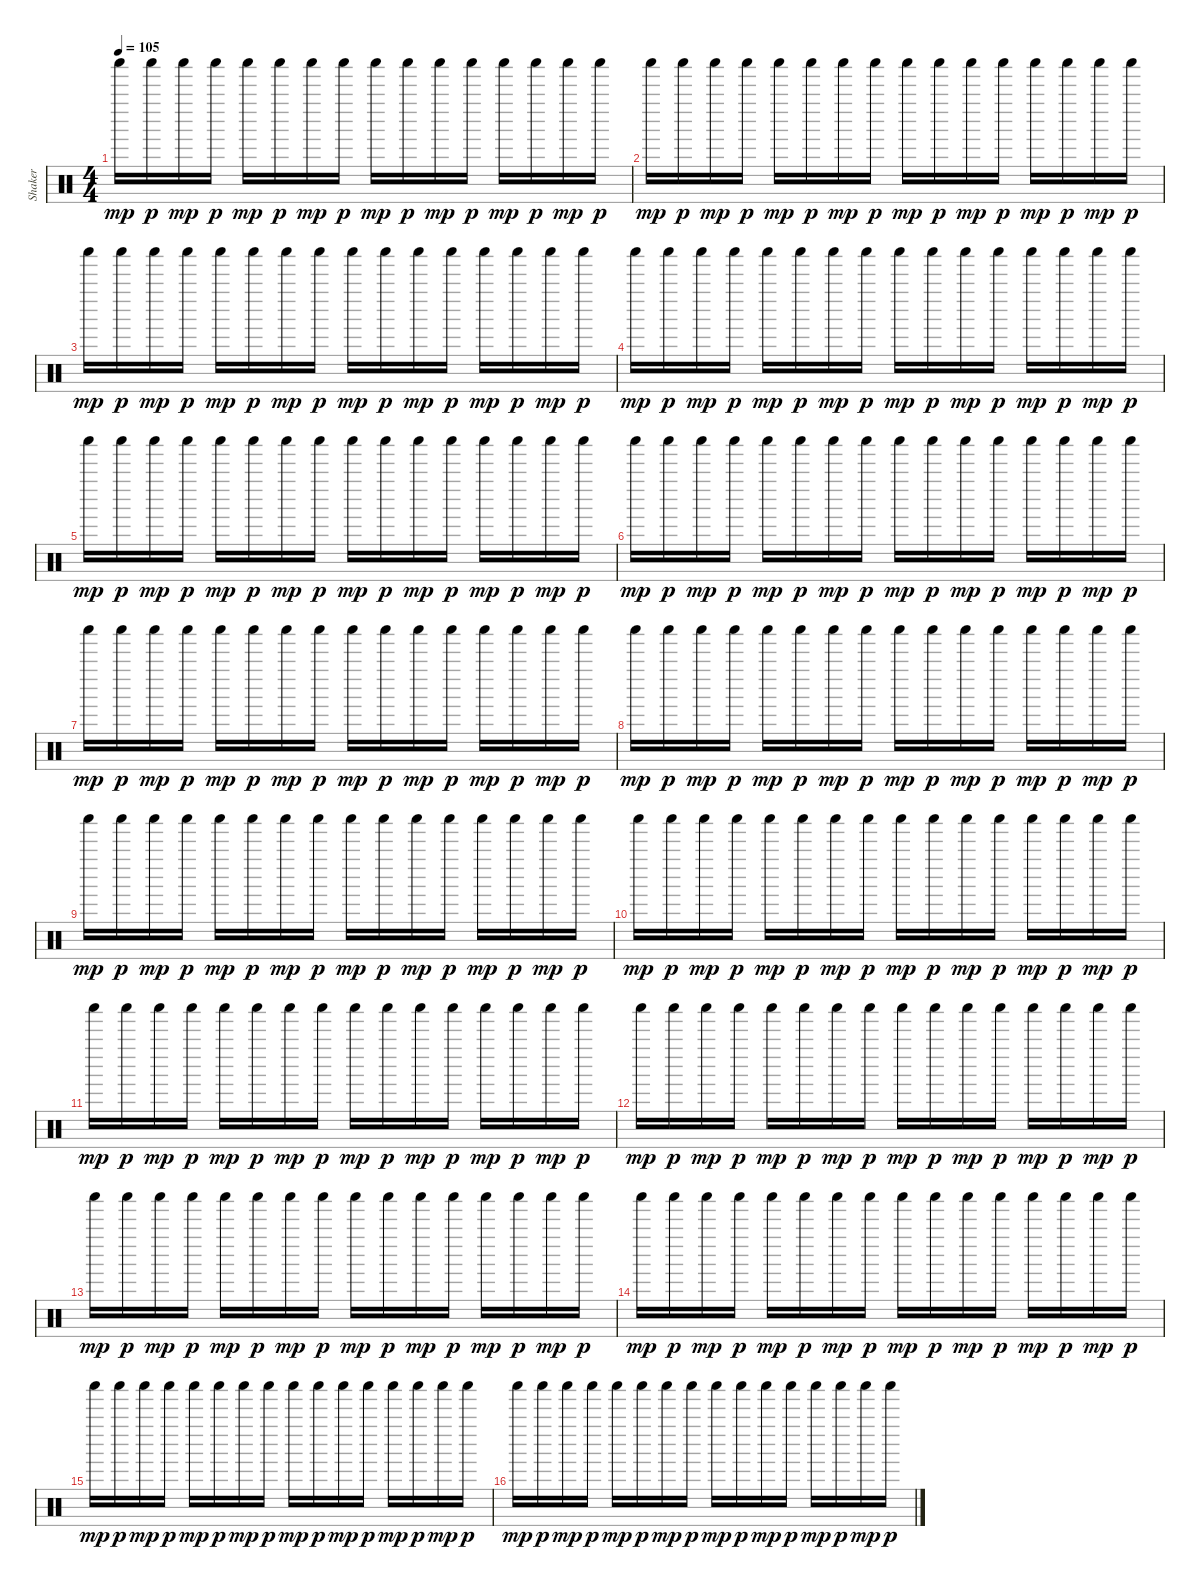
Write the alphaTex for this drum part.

\track ("Shaker" "Shaker") {instrument percussion}
\staff {score}
\articulation defaults
\ts (4 4)
\tempo 105
\clef neutral
\ks c "Shaker (hit)".16{dy mp} "Shaker (hit)".16{dy p} "Shaker (hit)".16{dy mp} "Shaker (hit)".16{dy p} "Shaker (hit)".16{dy mp} "Shaker (hit)".16{dy p} "Shaker (hit)".16{dy mp} "Shaker (hit)".16{dy p} "Shaker (hit)".16{dy mp} "Shaker (hit)".16{dy p} "Shaker (hit)".16{dy mp} "Shaker (hit)".16{dy p} "Shaker (hit)".16{dy mp} "Shaker (hit)".16{dy p} "Shaker (hit)".16{dy mp} "Shaker (hit)".16{dy p}
|
"Shaker (hit)".16{dy mp} "Shaker (hit)".16{dy p} "Shaker (hit)".16{dy mp} "Shaker (hit)".16{dy p} "Shaker (hit)".16{dy mp} "Shaker (hit)".16{dy p} "Shaker (hit)".16{dy mp} "Shaker (hit)".16{dy p} "Shaker (hit)".16{dy mp} "Shaker (hit)".16{dy p} "Shaker (hit)".16{dy mp} "Shaker (hit)".16{dy p} "Shaker (hit)".16{dy mp} "Shaker (hit)".16{dy p} "Shaker (hit)".16{dy mp} "Shaker (hit)".16{dy p} |
"Shaker (hit)".16{dy mp} "Shaker (hit)".16{dy p} "Shaker (hit)".16{dy mp} "Shaker (hit)".16{dy p} "Shaker (hit)".16{dy mp} "Shaker (hit)".16{dy p} "Shaker (hit)".16{dy mp} "Shaker (hit)".16{dy p} "Shaker (hit)".16{dy mp} "Shaker (hit)".16{dy p} "Shaker (hit)".16{dy mp} "Shaker (hit)".16{dy p} "Shaker (hit)".16{dy mp} "Shaker (hit)".16{dy p} "Shaker (hit)".16{dy mp} "Shaker (hit)".16{dy p} |
"Shaker (hit)".16{dy mp} "Shaker (hit)".16{dy p} "Shaker (hit)".16{dy mp} "Shaker (hit)".16{dy p} "Shaker (hit)".16{dy mp} "Shaker (hit)".16{dy p} "Shaker (hit)".16{dy mp} "Shaker (hit)".16{dy p} "Shaker (hit)".16{dy mp} "Shaker (hit)".16{dy p} "Shaker (hit)".16{dy mp} "Shaker (hit)".16{dy p} "Shaker (hit)".16{dy mp} "Shaker (hit)".16{dy p} "Shaker (hit)".16{dy mp} "Shaker (hit)".16{dy p} |
"Shaker (hit)".16{dy mp} "Shaker (hit)".16{dy p} "Shaker (hit)".16{dy mp} "Shaker (hit)".16{dy p} "Shaker (hit)".16{dy mp} "Shaker (hit)".16{dy p} "Shaker (hit)".16{dy mp} "Shaker (hit)".16{dy p} "Shaker (hit)".16{dy mp} "Shaker (hit)".16{dy p} "Shaker (hit)".16{dy mp} "Shaker (hit)".16{dy p} "Shaker (hit)".16{dy mp} "Shaker (hit)".16{dy p} "Shaker (hit)".16{dy mp} "Shaker (hit)".16{dy p} |
"Shaker (hit)".16{dy mp} "Shaker (hit)".16{dy p} "Shaker (hit)".16{dy mp} "Shaker (hit)".16{dy p} "Shaker (hit)".16{dy mp} "Shaker (hit)".16{dy p} "Shaker (hit)".16{dy mp} "Shaker (hit)".16{dy p} "Shaker (hit)".16{dy mp} "Shaker (hit)".16{dy p} "Shaker (hit)".16{dy mp} "Shaker (hit)".16{dy p} "Shaker (hit)".16{dy mp} "Shaker (hit)".16{dy p} "Shaker (hit)".16{dy mp} "Shaker (hit)".16{dy p} |
"Shaker (hit)".16{dy mp} "Shaker (hit)".16{dy p} "Shaker (hit)".16{dy mp} "Shaker (hit)".16{dy p} "Shaker (hit)".16{dy mp} "Shaker (hit)".16{dy p} "Shaker (hit)".16{dy mp} "Shaker (hit)".16{dy p} "Shaker (hit)".16{dy mp} "Shaker (hit)".16{dy p} "Shaker (hit)".16{dy mp} "Shaker (hit)".16{dy p} "Shaker (hit)".16{dy mp} "Shaker (hit)".16{dy p} "Shaker (hit)".16{dy mp} "Shaker (hit)".16{dy p} |
"Shaker (hit)".16{dy mp} "Shaker (hit)".16{dy p} "Shaker (hit)".16{dy mp} "Shaker (hit)".16{dy p} "Shaker (hit)".16{dy mp} "Shaker (hit)".16{dy p} "Shaker (hit)".16{dy mp} "Shaker (hit)".16{dy p} "Shaker (hit)".16{dy mp} "Shaker (hit)".16{dy p} "Shaker (hit)".16{dy mp} "Shaker (hit)".16{dy p} "Shaker (hit)".16{dy mp} "Shaker (hit)".16{dy p} "Shaker (hit)".16{dy mp} "Shaker (hit)".16{dy p} |
"Shaker (hit)".16{dy mp} "Shaker (hit)".16{dy p} "Shaker (hit)".16{dy mp} "Shaker (hit)".16{dy p} "Shaker (hit)".16{dy mp} "Shaker (hit)".16{dy p} "Shaker (hit)".16{dy mp} "Shaker (hit)".16{dy p} "Shaker (hit)".16{dy mp} "Shaker (hit)".16{dy p} "Shaker (hit)".16{dy mp} "Shaker (hit)".16{dy p} "Shaker (hit)".16{dy mp} "Shaker (hit)".16{dy p} "Shaker (hit)".16{dy mp} "Shaker (hit)".16{dy p} |
"Shaker (hit)".16{dy mp} "Shaker (hit)".16{dy p} "Shaker (hit)".16{dy mp} "Shaker (hit)".16{dy p} "Shaker (hit)".16{dy mp} "Shaker (hit)".16{dy p} "Shaker (hit)".16{dy mp} "Shaker (hit)".16{dy p} "Shaker (hit)".16{dy mp} "Shaker (hit)".16{dy p} "Shaker (hit)".16{dy mp} "Shaker (hit)".16{dy p} "Shaker (hit)".16{dy mp} "Shaker (hit)".16{dy p} "Shaker (hit)".16{dy mp} "Shaker (hit)".16{dy p} |
"Shaker (hit)".16{dy mp} "Shaker (hit)".16{dy p} "Shaker (hit)".16{dy mp} "Shaker (hit)".16{dy p} "Shaker (hit)".16{dy mp} "Shaker (hit)".16{dy p} "Shaker (hit)".16{dy mp} "Shaker (hit)".16{dy p} "Shaker (hit)".16{dy mp} "Shaker (hit)".16{dy p} "Shaker (hit)".16{dy mp} "Shaker (hit)".16{dy p} "Shaker (hit)".16{dy mp} "Shaker (hit)".16{dy p} "Shaker (hit)".16{dy mp} "Shaker (hit)".16{dy p} |
"Shaker (hit)".16{dy mp} "Shaker (hit)".16{dy p} "Shaker (hit)".16{dy mp} "Shaker (hit)".16{dy p} "Shaker (hit)".16{dy mp} "Shaker (hit)".16{dy p} "Shaker (hit)".16{dy mp} "Shaker (hit)".16{dy p} "Shaker (hit)".16{dy mp} "Shaker (hit)".16{dy p} "Shaker (hit)".16{dy mp} "Shaker (hit)".16{dy p} "Shaker (hit)".16{dy mp} "Shaker (hit)".16{dy p} "Shaker (hit)".16{dy mp} "Shaker (hit)".16{dy p} |
"Shaker (hit)".16{dy mp} "Shaker (hit)".16{dy p} "Shaker (hit)".16{dy mp} "Shaker (hit)".16{dy p} "Shaker (hit)".16{dy mp} "Shaker (hit)".16{dy p} "Shaker (hit)".16{dy mp} "Shaker (hit)".16{dy p} "Shaker (hit)".16{dy mp} "Shaker (hit)".16{dy p} "Shaker (hit)".16{dy mp} "Shaker (hit)".16{dy p} "Shaker (hit)".16{dy mp} "Shaker (hit)".16{dy p} "Shaker (hit)".16{dy mp} "Shaker (hit)".16{dy p} |
"Shaker (hit)".16{dy mp} "Shaker (hit)".16{dy p} "Shaker (hit)".16{dy mp} "Shaker (hit)".16{dy p} "Shaker (hit)".16{dy mp} "Shaker (hit)".16{dy p} "Shaker (hit)".16{dy mp} "Shaker (hit)".16{dy p} "Shaker (hit)".16{dy mp} "Shaker (hit)".16{dy p} "Shaker (hit)".16{dy mp} "Shaker (hit)".16{dy p} "Shaker (hit)".16{dy mp} "Shaker (hit)".16{dy p} "Shaker (hit)".16{dy mp} "Shaker (hit)".16{dy p} |
"Shaker (hit)".16{dy mp} "Shaker (hit)".16{dy p} "Shaker (hit)".16{dy mp} "Shaker (hit)".16{dy p} "Shaker (hit)".16{dy mp} "Shaker (hit)".16{dy p} "Shaker (hit)".16{dy mp} "Shaker (hit)".16{dy p} "Shaker (hit)".16{dy mp} "Shaker (hit)".16{dy p} "Shaker (hit)".16{dy mp} "Shaker (hit)".16{dy p} "Shaker (hit)".16{dy mp} "Shaker (hit)".16{dy p} "Shaker (hit)".16{dy mp} "Shaker (hit)".16{dy p} |
"Shaker (hit)".16{dy mp} "Shaker (hit)".16{dy p} "Shaker (hit)".16{dy mp} "Shaker (hit)".16{dy p} "Shaker (hit)".16{dy mp} "Shaker (hit)".16{dy p} "Shaker (hit)".16{dy mp} "Shaker (hit)".16{dy p} "Shaker (hit)".16{dy mp} "Shaker (hit)".16{dy p} "Shaker (hit)".16{dy mp} "Shaker (hit)".16{dy p} "Shaker (hit)".16{dy mp} "Shaker (hit)".16{dy p} "Shaker (hit)".16{dy mp} "Shaker (hit)".16{dy p}
